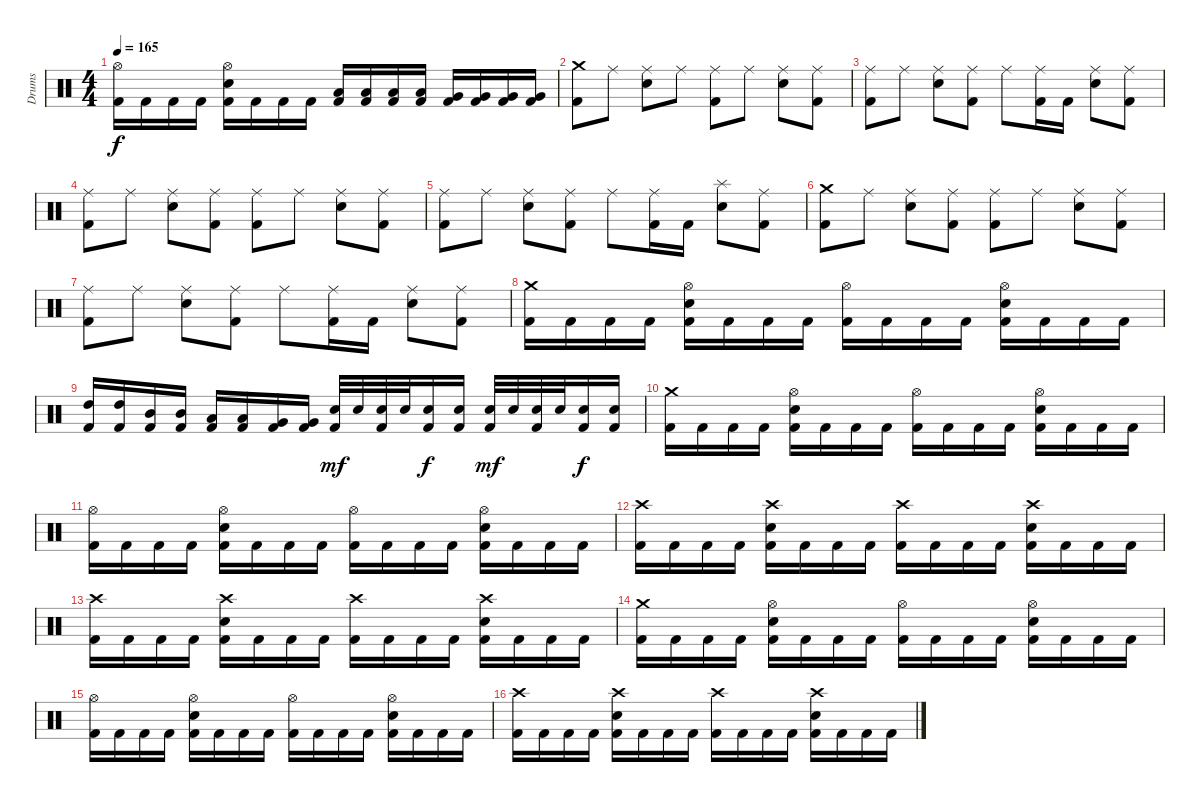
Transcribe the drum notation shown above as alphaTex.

\track ("Drums" "Drums") {instrument percussion}
\staff {score}
\articulation defaults
\ts (4 4)
\tempo 165
\clef neutral
\ks c
("Hi-Hat (open)" "Kick (hit) 2").16{dy f} "Kick (hit) 2".16 "Kick (hit) 2".16 "Kick (hit) 2".16 ("Hi-Hat (open)" "Electric Snare (hit)" "Kick (hit) 2").16 "Kick (hit) 2".16 "Kick (hit) 2".16 "Kick (hit) 2".16 ("Low Tom (hit)" "Kick (hit) 2").16 ("Low Tom (hit)" "Kick (hit) 2").16 ("Low Tom (hit)" "Kick (hit) 2").16 ("Low Tom (hit)" "Kick (hit) 2").16 ("Very Low Tom (hit)" "Kick (hit) 2").16 ("Very Low Tom (hit)" "Kick (hit) 2").16 ("Very Low Tom (hit)" "Kick (hit) 2").16 ("Very Low Tom (hit)" "Kick (hit) 2").16 |
("Crash medium (hit)" "Kick (hit) 2").8 "Ride (middle)".8 ("Ride (middle)" "Electric Snare (hit)").8 "Ride (middle)".8 ("Ride (middle)" "Kick (hit) 2").8 "Ride (middle)".8 ("Ride (middle)" "Electric Snare (hit)").8 ("Ride (middle)" "Kick (hit) 2").8 |
("Ride (middle)" "Kick (hit) 2").8 "Ride (middle)".8 ("Ride (middle)" "Electric Snare (hit)").8 ("Ride (middle)" "Kick (hit) 2").8 "Ride (middle)".8 ("Ride (middle)" "Kick (hit) 2").16 "Kick (hit) 2".16 ("Ride (middle)" "Electric Snare (hit)").8 ("Ride (middle)" "Kick (hit) 2").8 |
("Ride (middle)" "Kick (hit) 2").8 "Ride (middle)".8 ("Ride (middle)" "Electric Snare (hit)").8 ("Ride (middle)" "Kick (hit) 2").8 ("Ride (middle)" "Kick (hit) 2").8 "Ride (middle)".8 ("Ride (middle)" "Electric Snare (hit)").8 ("Ride (middle)" "Kick (hit) 2").8 |
("Ride (middle)" "Kick (hit) 2").8 "Ride (middle)".8 ("Ride (middle)" "Electric Snare (hit)").8 ("Ride (middle)" "Kick (hit) 2").8 "Ride (middle)".8 ("Ride (middle)" "Kick (hit) 2").16 "Kick (hit) 2".16 ("Splash (hit)" "Electric Snare (hit)").8 ("Ride (middle)" "Kick (hit) 2").8 |
("Crash medium (hit)" "Kick (hit) 2").8 "Ride (middle)".8 ("Ride (middle)" "Electric Snare (hit)").8 ("Ride (middle)" "Kick (hit) 2").8 ("Ride (middle)" "Kick (hit) 2").8 "Ride (middle)".8 ("Ride (middle)" "Electric Snare (hit)").8 ("Ride (middle)" "Kick (hit) 2").8 |
("Ride (middle)" "Kick (hit) 2").8 "Ride (middle)".8 ("Ride (middle)" "Electric Snare (hit)").8 ("Ride (middle)" "Kick (hit) 2").8 "Ride (middle)".8 ("Ride (middle)" "Kick (hit) 2").16 "Kick (hit) 2".16 ("Ride (middle)" "Electric Snare (hit)").8 ("Ride (middle)" "Kick (hit) 2").8 |
("Crash medium (hit)" "Kick (hit) 2").16 "Kick (hit) 2".16 "Kick (hit) 2".16 "Kick (hit) 2".16 ("Hi-Hat (open)" "Electric Snare (hit)" "Kick (hit) 2").16 "Kick (hit) 2".16 "Kick (hit) 2".16 "Kick (hit) 2".16 ("Hi-Hat (open)" "Kick (hit) 2").16 "Kick (hit) 2".16 "Kick (hit) 2".16 "Kick (hit) 2".16 ("Hi-Hat (open)" "Electric Snare (hit)" "Kick (hit) 2").16 "Kick (hit) 2".16 "Kick (hit) 2".16 "Kick (hit) 2".16 |
("High Tom (hit)" "Kick (hit) 2").16 ("High Tom (hit)" "Kick (hit) 2").16 ("Mid Tom (hit)" "Kick (hit) 2").16 ("Mid Tom (hit)" "Kick (hit) 2").16 ("Low Tom (hit)" "Kick (hit) 2").16 ("Low Tom (hit)" "Kick (hit) 2").16 ("Very Low Tom (hit)" "Kick (hit) 2").16 ("Very Low Tom (hit)" "Kick (hit) 2").16 ("Electric Snare (hit)" "Kick (hit) 2").32{dy mf} "Electric Snare (hit)".32 ("Electric Snare (hit)" "Kick (hit) 2").32 "Electric Snare (hit)".32 ("Electric Snare (hit)" "Kick (hit) 2").16{dy f} ("Electric Snare (hit)" "Kick (hit) 2").16 ("Electric Snare (hit)" "Kick (hit) 2").32{dy mf} "Electric Snare (hit)".32 ("Electric Snare (hit)" "Kick (hit) 2").32 "Electric Snare (hit)".32 ("Electric Snare (hit)" "Kick (hit) 2").16{dy f} ("Electric Snare (hit)" "Kick (hit) 2").16 |
("Crash medium (hit)" "Kick (hit) 2").16 "Kick (hit) 2".16 "Kick (hit) 2".16 "Kick (hit) 2".16 ("Hi-Hat (open)" "Electric Snare (hit)" "Kick (hit) 2").16 "Kick (hit) 2".16 "Kick (hit) 2".16 "Kick (hit) 2".16 ("Hi-Hat (open)" "Kick (hit) 2").16 "Kick (hit) 2".16 "Kick (hit) 2".16 "Kick (hit) 2".16 ("Hi-Hat (open)" "Electric Snare (hit)" "Kick (hit) 2").16 "Kick (hit) 2".16 "Kick (hit) 2".16 "Kick (hit) 2".16 |
("Hi-Hat (open)" "Kick (hit) 2").16 "Kick (hit) 2".16 "Kick (hit) 2".16 "Kick (hit) 2".16 ("Hi-Hat (open)" "Electric Snare (hit)" "Kick (hit) 2").16 "Kick (hit) 2".16 "Kick (hit) 2".16 "Kick (hit) 2".16 ("Hi-Hat (open)" "Kick (hit) 2").16 "Kick (hit) 2".16 "Kick (hit) 2".16 "Kick (hit) 2".16 ("Hi-Hat (open)" "Electric Snare (hit)" "Kick (hit) 2").16 "Kick (hit) 2".16 "Kick (hit) 2".16 "Kick (hit) 2".16 |
("Crash high (hit)" "Kick (hit) 2").16 "Kick (hit) 2".16 "Kick (hit) 2".16 "Kick (hit) 2".16 ("Crash high (hit)" "Electric Snare (hit)" "Kick (hit) 2").16 "Kick (hit) 2".16 "Kick (hit) 2".16 "Kick (hit) 2".16 ("Crash high (hit)" "Kick (hit) 2").16 "Kick (hit) 2".16 "Kick (hit) 2".16 "Kick (hit) 2".16 ("Crash high (hit)" "Electric Snare (hit)" "Kick (hit) 2").16 "Kick (hit) 2".16 "Kick (hit) 2".16 "Kick (hit) 2".16 |
("Crash high (hit)" "Kick (hit) 2").16 "Kick (hit) 2".16 "Kick (hit) 2".16 "Kick (hit) 2".16 ("Crash high (hit)" "Electric Snare (hit)" "Kick (hit) 2").16 "Kick (hit) 2".16 "Kick (hit) 2".16 "Kick (hit) 2".16 ("Crash high (hit)" "Kick (hit) 2").16 "Kick (hit) 2".16 "Kick (hit) 2".16 "Kick (hit) 2".16 ("Crash high (hit)" "Electric Snare (hit)" "Kick (hit) 2").16 "Kick (hit) 2".16 "Kick (hit) 2".16 "Kick (hit) 2".16 |
("Crash medium (hit)" "Kick (hit) 2").16 "Kick (hit) 2".16 "Kick (hit) 2".16 "Kick (hit) 2".16 ("Hi-Hat (open)" "Electric Snare (hit)" "Kick (hit) 2").16 "Kick (hit) 2".16 "Kick (hit) 2".16 "Kick (hit) 2".16 ("Hi-Hat (open)" "Kick (hit) 2").16 "Kick (hit) 2".16 "Kick (hit) 2".16 "Kick (hit) 2".16 ("Hi-Hat (open)" "Electric Snare (hit)" "Kick (hit) 2").16 "Kick (hit) 2".16 "Kick (hit) 2".16 "Kick (hit) 2".16 |
("Hi-Hat (open)" "Kick (hit) 2").16 "Kick (hit) 2".16 "Kick (hit) 2".16 "Kick (hit) 2".16 ("Hi-Hat (open)" "Electric Snare (hit)" "Kick (hit) 2").16 "Kick (hit) 2".16 "Kick (hit) 2".16 "Kick (hit) 2".16 ("Hi-Hat (open)" "Kick (hit) 2").16 "Kick (hit) 2".16 "Kick (hit) 2".16 "Kick (hit) 2".16 ("Hi-Hat (open)" "Electric Snare (hit)" "Kick (hit) 2").16 "Kick (hit) 2".16 "Kick (hit) 2".16 "Kick (hit) 2".16 |
("Crash high (hit)" "Kick (hit) 2").16 "Kick (hit) 2".16 "Kick (hit) 2".16 "Kick (hit) 2".16 ("Crash high (hit)" "Electric Snare (hit)" "Kick (hit) 2").16 "Kick (hit) 2".16 "Kick (hit) 2".16 "Kick (hit) 2".16 ("Crash high (hit)" "Kick (hit) 2").16 "Kick (hit) 2".16 "Kick (hit) 2".16 "Kick (hit) 2".16 ("Crash high (hit)" "Electric Snare (hit)" "Kick (hit) 2").16 "Kick (hit) 2".16 "Kick (hit) 2".16 "Kick (hit) 2".16
